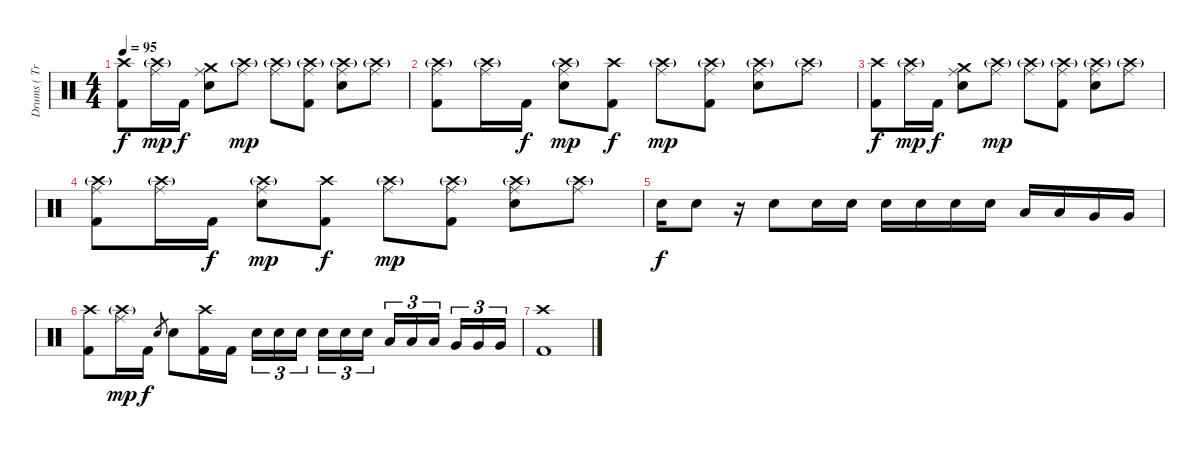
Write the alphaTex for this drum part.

\track ("Drums ( Trivett Wingo )" "Drums ( Tr") {instrument percussion}
\staff {score}
\articulation defaults
\ts (4 4)
\tempo 95
\clef neutral
\ks c
("Crash high (hit)" "Kick (hit) 2").8{dy f} ("Crash high (hit)"{g} "Ride (middle)").16{dy mp} "Kick (hit) 2".16{dy f} ("Crash medium (hit)" "Ride (middle)" "Electric Snare (hit)").8 ("Crash high (hit)"{g} "Ride (middle)").8{dy mp} ("Crash high (hit)"{g} "Ride (middle)").8 ("Crash high (hit)"{g} "Ride (middle)" "Kick (hit) 2").8 ("Crash high (hit)"{g} "Ride (middle)" "Electric Snare (hit)").8 ("Crash high (hit)"{g} "Ride (middle)").8 |
("Crash high (hit)"{g} "Ride (middle)" "Kick (hit) 2").8 ("Crash high (hit)"{g} "Ride (middle)").16 "Kick (hit) 2".16{dy f} ("Crash high (hit)"{g} "Ride (middle)" "Electric Snare (hit)").8{dy mp} ("Crash high (hit)" "Kick (hit) 2").8{dy f} ("Crash high (hit)"{g} "Ride (middle)").8{dy mp} ("Crash high (hit)"{g} "Ride (middle)" "Kick (hit) 2").8 ("Crash high (hit)"{g} "Ride (middle)" "Electric Snare (hit)").8 ("Crash high (hit)"{g} "Ride (middle)").8 |
("Crash high (hit)" "Kick (hit) 2").8{dy f} ("Crash high (hit)"{g} "Ride (middle)").16{dy mp} "Kick (hit) 2".16{dy f} ("Crash medium (hit)" "Ride (middle)" "Electric Snare (hit)").8 ("Crash high (hit)"{g} "Ride (middle)").8{dy mp} ("Crash high (hit)"{g} "Ride (middle)").8 ("Crash high (hit)"{g} "Ride (middle)" "Kick (hit) 2").8 ("Crash high (hit)"{g} "Ride (middle)" "Electric Snare (hit)").8 ("Crash high (hit)"{g} "Ride (middle)").8 |
("Crash high (hit)"{g} "Ride (middle)" "Kick (hit) 2").8 ("Crash high (hit)"{g} "Ride (middle)").16 "Kick (hit) 2".16{dy f} ("Crash high (hit)"{g} "Ride (middle)" "Electric Snare (hit)").8{dy mp} ("Crash high (hit)" "Kick (hit) 2").8{dy f} ("Crash high (hit)"{g} "Ride (middle)").8{dy mp} ("Crash high (hit)"{g} "Ride (middle)" "Kick (hit) 2").8 ("Crash high (hit)"{g} "Ride (middle)" "Electric Snare (hit)").8 ("Crash high (hit)"{g} "Ride (middle)").8 |
"Electric Snare (hit)".16{dy f} "Electric Snare (hit)".8 r.16 "Electric Snare (hit)".8 "Electric Snare (hit)".16 "Electric Snare (hit)".16 "Electric Snare (hit)".16 "Electric Snare (hit)".16 "Electric Snare (hit)".16 "Electric Snare (hit)".16 "Low Tom (hit)".16 "Low Tom (hit)".16 "Very Low Tom (hit)".16 "Very Low Tom (hit)".16 |
("Crash high (hit)" "Kick (hit) 2").8 ("Crash high (hit)"{g} "Ride (middle)").16{dy mp} "Kick (hit) 2".16{dy f} "Electric Snare (hit)".8{gr} "Electric Snare (hit)".8 ("Crash high (hit)" "Kick (hit) 2").16 "Kick (hit) 2".16 "Electric Snare (hit)".16{tu (3 2)} "Electric Snare (hit)".16{tu (3 2)} "Electric Snare (hit)".16{tu (3 2) beam splitsecondary} "Electric Snare (hit)".16{tu (3 2)} "Electric Snare (hit)".16{tu (3 2)} "Electric Snare (hit)".16{tu (3 2)} "Low Tom (hit)".16{tu (3 2)} "Low Tom (hit)".16{tu (3 2)} "Low Tom (hit)".16{tu (3 2) beam splitsecondary} "Very Low Tom (hit)".16{tu (3 2)} "Very Low Tom (hit)".16{tu (3 2)} "Very Low Tom (hit)".16{tu (3 2)} |
("Crash high (hit)" "Kick (hit) 2").1
